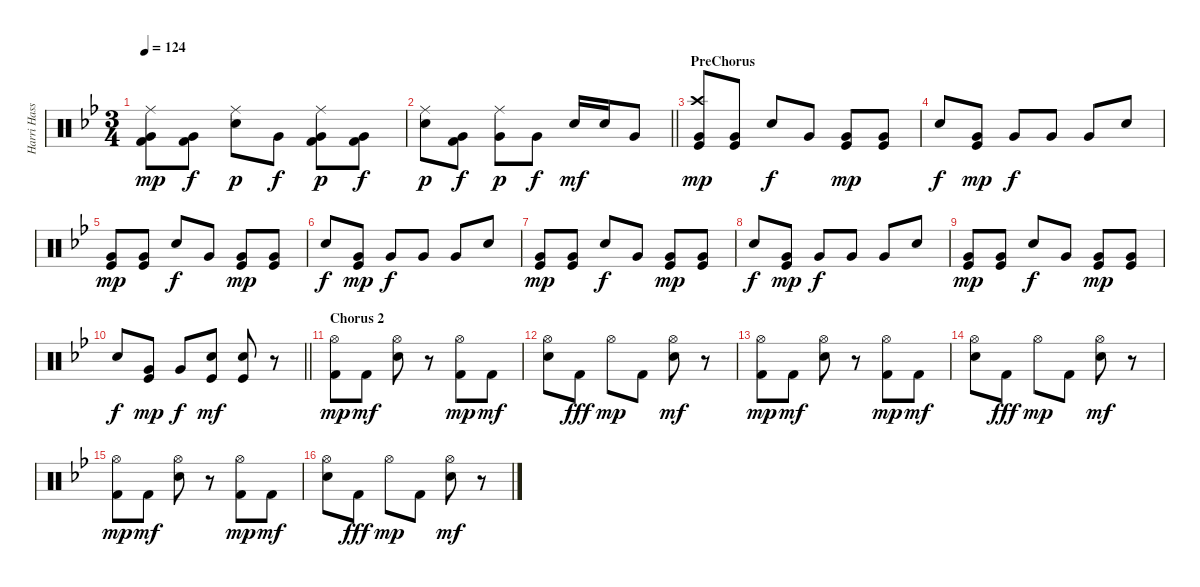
\track ("Harri Hassin (drums)" "Harri Hass") {instrument percussion}
\staff {score}
\articulation defaults
\ts (3 4)
\tempo 124
\clef neutral
\ks bb
("Ride (middle)" "Very Low Tom (hit)" "Kick (hit) 2").8{dy mp} ("Very Low Tom (hit)" "Kick (hit) 2").8{dy f} ("Ride (middle)" "Electric Snare (hit)").8{dy p} "Very Low Tom (hit)".8{dy f} ("Ride (middle)" "Very Low Tom (hit)" "Kick (hit) 2").8{dy p} ("Very Low Tom (hit)" "Kick (hit) 2").8{dy f} |
\barLineRight lightlight
("Ride (middle)" "Electric Snare (hit)").8{dy p} ("Very Low Tom (hit)" "Kick (hit) 2").8{dy f} ("Ride (middle)" "Very Low Tom (hit)").8{dy p} "Very Low Tom (hit)".8{dy f} "Electric Snare (hit)".16{dy mf} "Electric Snare (hit)".16 "Very Low Tom (hit)".8 |
\section ("" "PreChorus")
("Crash high (hit)" "Very Low Tom (hit)" "Kick (hit)").8{dy mp} ("Very Low Tom (hit)" "Kick (hit)").8 "Electric Snare (hit)".8{dy f} "Very Low Tom (hit)".8 ("Very Low Tom (hit)" "Kick (hit)").8{dy mp} ("Very Low Tom (hit)" "Kick (hit)").8 |
"Electric Snare (hit)".8{dy f} ("Very Low Tom (hit)" "Kick (hit)").8{dy mp} "Very Low Tom (hit)".8{dy f} "Very Low Tom (hit)".8 "Very Low Tom (hit)".8 "Electric Snare (hit)".8 |
("Very Low Tom (hit)" "Kick (hit)").8{dy mp} ("Very Low Tom (hit)" "Kick (hit)").8 "Electric Snare (hit)".8{dy f} "Very Low Tom (hit)".8 ("Very Low Tom (hit)" "Kick (hit)").8{dy mp} ("Very Low Tom (hit)" "Kick (hit)").8 |
"Electric Snare (hit)".8{dy f} ("Very Low Tom (hit)" "Kick (hit)").8{dy mp} "Very Low Tom (hit)".8{dy f} "Very Low Tom (hit)".8 "Very Low Tom (hit)".8 "Electric Snare (hit)".8 |
("Very Low Tom (hit)" "Kick (hit)").8{dy mp} ("Very Low Tom (hit)" "Kick (hit)").8 "Electric Snare (hit)".8{dy f} "Very Low Tom (hit)".8 ("Very Low Tom (hit)" "Kick (hit)").8{dy mp} ("Very Low Tom (hit)" "Kick (hit)").8 |
"Electric Snare (hit)".8{dy f} ("Very Low Tom (hit)" "Kick (hit)").8{dy mp} "Very Low Tom (hit)".8{dy f} "Very Low Tom (hit)".8 "Very Low Tom (hit)".8 "Electric Snare (hit)".8 |
("Very Low Tom (hit)" "Kick (hit)").8{dy mp} ("Very Low Tom (hit)" "Kick (hit)").8 "Electric Snare (hit)".8{dy f} "Very Low Tom (hit)".8 ("Very Low Tom (hit)" "Kick (hit)").8{dy mp} ("Very Low Tom (hit)" "Kick (hit)").8 |
\barLineRight lightlight "Electric Snare (hit)".8{dy f}
("Very Low Tom (hit)" "Kick (hit)").8{dy mp} "Very Low Tom (hit)".8{dy f} ("Electric Snare (hit)" "Kick (hit)").8{dy mf} ("Electric Snare (hit)" "Kick (hit)").8 r.8 |
\section ("" "Chorus 2")
("Hi-Hat (open)" "Kick (hit) 2").8{dy mp} "Kick (hit) 2".8{dy mf} ("Hi-Hat (open)" "Electric Snare (hit)").8 r.8 ("Hi-Hat (open)" "Kick (hit) 2").8{dy mp} "Kick (hit) 2".8{dy mf} |
("Hi-Hat (open)" "Electric Snare (hit)").8 "Kick (hit) 2".8{dy fff} "Hi-Hat (open)".8{dy mp} "Kick (hit) 2".8 ("Hi-Hat (open)" "Electric Snare (hit)").8{dy mf} r.8 |
("Hi-Hat (open)" "Kick (hit) 2").8{dy mp} "Kick (hit) 2".8{dy mf} ("Hi-Hat (open)" "Electric Snare (hit)").8 r.8 ("Hi-Hat (open)" "Kick (hit) 2").8{dy mp} "Kick (hit) 2".8{dy mf} |
("Hi-Hat (open)" "Electric Snare (hit)").8 "Kick (hit) 2".8{dy fff} "Hi-Hat (open)".8{dy mp} "Kick (hit) 2".8 ("Hi-Hat (open)" "Electric Snare (hit)").8{dy mf} r.8 |
("Hi-Hat (open)" "Kick (hit) 2").8{dy mp} "Kick (hit) 2".8{dy mf} ("Hi-Hat (open)" "Electric Snare (hit)").8 r.8 ("Hi-Hat (open)" "Kick (hit) 2").8{dy mp} "Kick (hit) 2".8{dy mf} |
("Hi-Hat (open)" "Electric Snare (hit)").8 "Kick (hit) 2".8{dy fff} "Hi-Hat (open)".8{dy mp} "Kick (hit) 2".8 ("Hi-Hat (open)" "Electric Snare (hit)").8{dy mf} r.8
